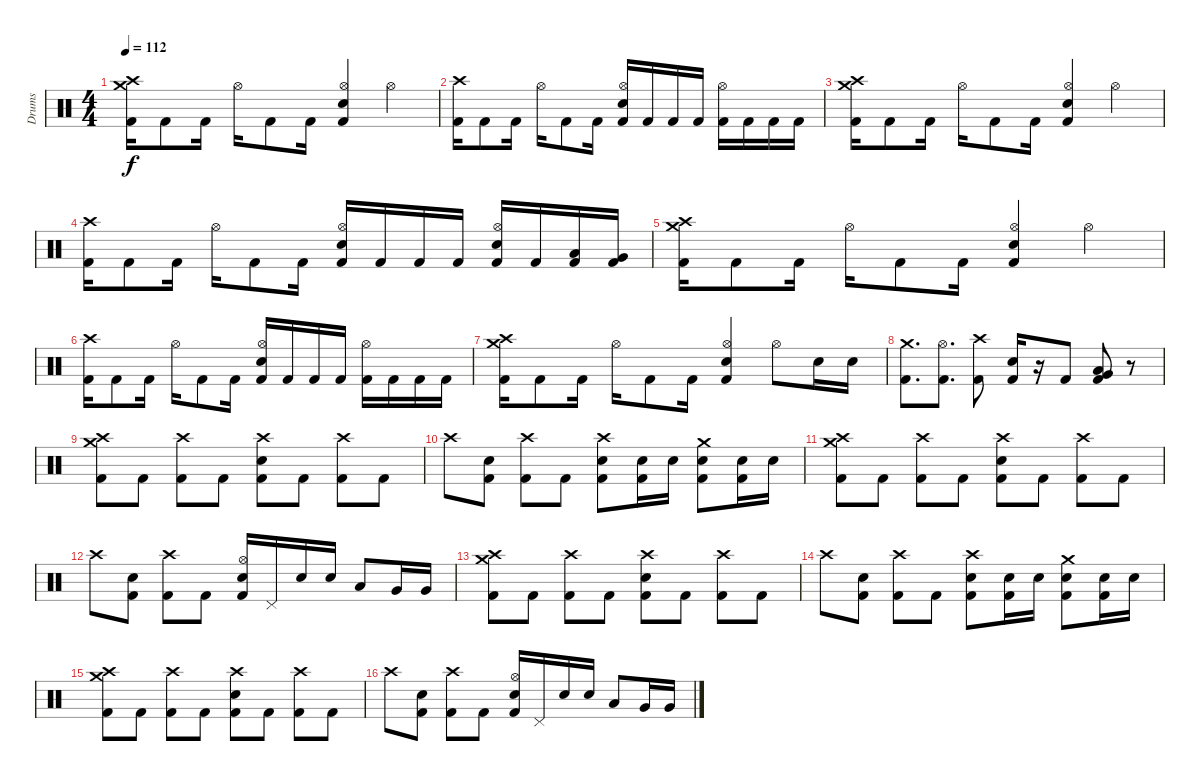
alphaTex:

\track ("Drums " "Drums ") {instrument percussion}
\staff {score}
\articulation defaults
\ts (4 4)
\tempo 112
\clef neutral
\ks c
("Crash high (hit)" "Crash medium (hit)" "Kick (hit) 2").16{dy f} "Kick (hit) 2".8 "Kick (hit) 2".16 "Hi-Hat (open)".16 "Kick (hit) 2".8 "Kick (hit) 2".16 ("Hi-Hat (open)" "Electric Snare (hit)" "Kick (hit) 2").4 "Hi-Hat (open)".4 |
("Crash high (hit)" "Kick (hit) 2").16 "Kick (hit) 2".8 "Kick (hit) 2".16 "Hi-Hat (open)".16 "Kick (hit) 2".8 "Kick (hit) 2".16 ("Hi-Hat (open)" "Electric Snare (hit)" "Kick (hit) 2").16 "Kick (hit) 2".16 "Kick (hit) 2".16 "Kick (hit) 2".16 ("Hi-Hat (open)" "Kick (hit) 2").16 "Kick (hit) 2".16 "Kick (hit) 2".16 "Kick (hit) 2".16 |
("Crash high (hit)" "Crash medium (hit)" "Kick (hit) 2").16 "Kick (hit) 2".8 "Kick (hit) 2".16 "Hi-Hat (open)".16 "Kick (hit) 2".8 "Kick (hit) 2".16 ("Hi-Hat (open)" "Electric Snare (hit)" "Kick (hit) 2").4 "Hi-Hat (open)".4 |
("Crash high (hit)" "Kick (hit) 2").16 "Kick (hit) 2".8 "Kick (hit) 2".16 "Hi-Hat (open)".16 "Kick (hit) 2".8 "Kick (hit) 2".16 ("Hi-Hat (open)" "Electric Snare (hit)" "Kick (hit) 2").16 "Kick (hit) 2".16 "Kick (hit) 2".16 "Kick (hit) 2".16 ("Hi-Hat (open)" "Electric Snare (hit)" "Kick (hit) 2").16 "Kick (hit) 2".16 ("Low Tom (hit)" "Kick (hit) 2").16 ("Very Low Tom (hit)" "Kick (hit) 2").16 |
("Crash high (hit)" "Crash medium (hit)" "Kick (hit) 2").16 "Kick (hit) 2".8 "Kick (hit) 2".16 "Hi-Hat (open)".16 "Kick (hit) 2".8 "Kick (hit) 2".16 ("Hi-Hat (open)" "Electric Snare (hit)" "Kick (hit) 2").4 "Hi-Hat (open)".4 |
("Crash high (hit)" "Kick (hit) 2").16 "Kick (hit) 2".8 "Kick (hit) 2".16 "Hi-Hat (open)".16 "Kick (hit) 2".8 "Kick (hit) 2".16 ("Hi-Hat (open)" "Electric Snare (hit)" "Kick (hit) 2").16 "Kick (hit) 2".16 "Kick (hit) 2".16 "Kick (hit) 2".16 ("Hi-Hat (open)" "Kick (hit) 2").16 "Kick (hit) 2".16 "Kick (hit) 2".16 "Kick (hit) 2".16 |
("Crash high (hit)" "Crash medium (hit)" "Kick (hit) 2").16 "Kick (hit) 2".8 "Kick (hit) 2".16 "Hi-Hat (open)".16 "Kick (hit) 2".8 "Kick (hit) 2".16 ("Hi-Hat (open)" "Electric Snare (hit)" "Kick (hit) 2").4 "Hi-Hat (open)".8 "Electric Snare (hit)".16 "Electric Snare (hit)".16 |
("Crash medium (hit)" "Kick (hit) 2").8{d} ("Hi-Hat (open)" "Kick (hit) 2").8{d} ("Crash high (hit)" "Kick (hit) 2").8 ("Electric Snare (hit)" "Kick (hit) 2").16 r.16 "Kick (hit) 2".8 ("Low Tom (hit)" "Very Low Tom (hit)" "Kick (hit) 2").8 r.8 |
("Crash high (hit)" "Crash medium (hit)" "Kick (hit) 2").8 "Kick (hit) 2".8 ("Crash high (hit)" "Kick (hit) 2").8 "Kick (hit) 2".8 ("Crash high (hit)" "Electric Snare (hit)" "Kick (hit) 2").8 "Kick (hit) 2".8 ("Crash high (hit)" "Kick (hit) 2").8 "Kick (hit) 2".8 |
"Crash high (hit)".8 ("Electric Snare (hit)" "Kick (hit) 2").8 ("Crash high (hit)" "Kick (hit) 2").8 "Kick (hit) 2".8 ("Crash high (hit)" "Electric Snare (hit)" "Kick (hit) 2").8 ("Electric Snare (hit)" "Kick (hit) 2").16 "Electric Snare (hit)".16 ("Crash medium (hit)" "Electric Snare (hit)" "Kick (hit) 2").8 ("Electric Snare (hit)" "Kick (hit) 2").16 "Electric Snare (hit)".16 |
("Crash high (hit)" "Crash medium (hit)" "Kick (hit) 2").8 "Kick (hit) 2".8 ("Crash high (hit)" "Kick (hit) 2").8 "Kick (hit) 2".8 ("Crash high (hit)" "Electric Snare (hit)" "Kick (hit) 2").8 "Kick (hit) 2".8 ("Crash high (hit)" "Kick (hit) 2").8 "Kick (hit) 2".8 |
"Crash high (hit)".8 ("Electric Snare (hit)" "Kick (hit) 2").8 ("Crash high (hit)" "Kick (hit) 2").8 "Kick (hit) 2".8 ("Hi-Hat (open)" "Electric Snare (hit)" "Kick (hit) 2").16 "Pedal Hi-Hat (hit)".16 "Electric Snare (hit)".16 "Electric Snare (hit)".16 "Low Tom (hit)".8 "Very Low Tom (hit)".16 "Very Low Tom (hit)".16 |
("Crash high (hit)" "Crash medium (hit)" "Kick (hit) 2").8 "Kick (hit) 2".8 ("Crash high (hit)" "Kick (hit) 2").8 "Kick (hit) 2".8 ("Crash high (hit)" "Electric Snare (hit)" "Kick (hit) 2").8 "Kick (hit) 2".8 ("Crash high (hit)" "Kick (hit) 2").8 "Kick (hit) 2".8 |
"Crash high (hit)".8 ("Electric Snare (hit)" "Kick (hit) 2").8 ("Crash high (hit)" "Kick (hit) 2").8 "Kick (hit) 2".8 ("Crash high (hit)" "Electric Snare (hit)" "Kick (hit) 2").8 ("Electric Snare (hit)" "Kick (hit) 2").16 "Electric Snare (hit)".16 ("Crash medium (hit)" "Electric Snare (hit)" "Kick (hit) 2").8 ("Electric Snare (hit)" "Kick (hit) 2").16 "Electric Snare (hit)".16 |
("Crash high (hit)" "Crash medium (hit)" "Kick (hit) 2").8 "Kick (hit) 2".8 ("Crash high (hit)" "Kick (hit) 2").8 "Kick (hit) 2".8 ("Crash high (hit)" "Electric Snare (hit)" "Kick (hit) 2").8 "Kick (hit) 2".8 ("Crash high (hit)" "Kick (hit) 2").8 "Kick (hit) 2".8 |
"Crash high (hit)".8 ("Electric Snare (hit)" "Kick (hit) 2").8 ("Crash high (hit)" "Kick (hit) 2").8 "Kick (hit) 2".8 ("Hi-Hat (open)" "Electric Snare (hit)" "Kick (hit) 2").16 "Pedal Hi-Hat (hit)".16 "Electric Snare (hit)".16 "Electric Snare (hit)".16 "Low Tom (hit)".8 "Very Low Tom (hit)".16 "Very Low Tom (hit)".16
